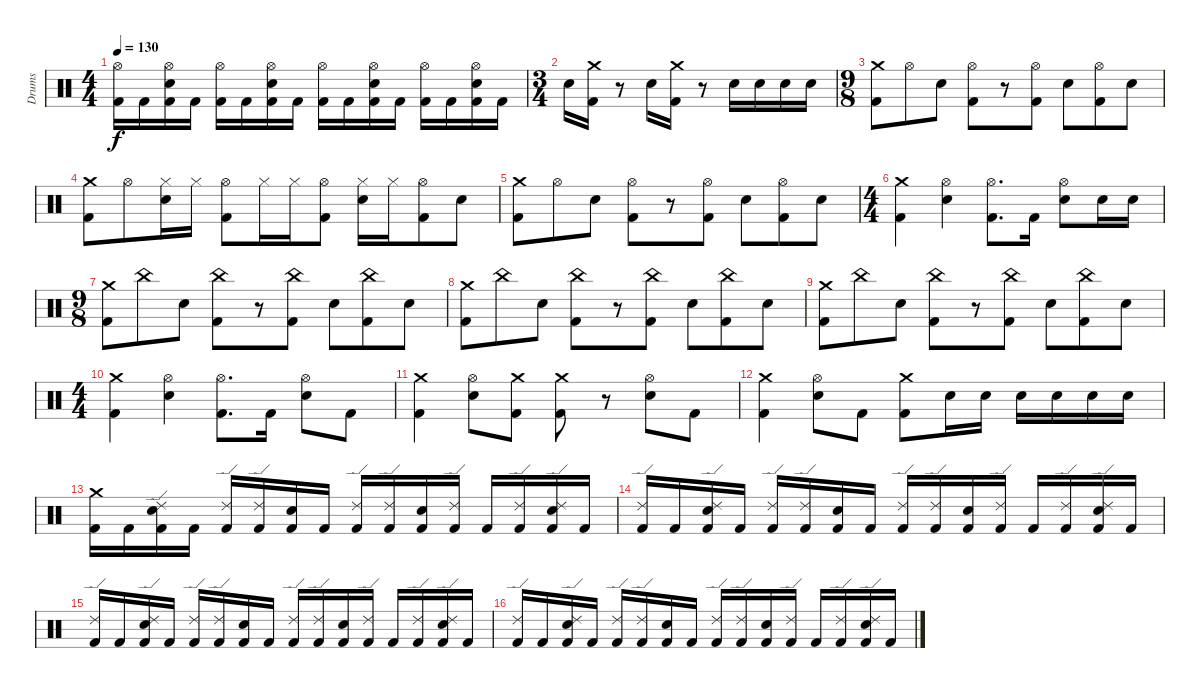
\track ("Drums" "Drums") {instrument percussion}
\staff {score}
\articulation defaults
\ts (4 4)
\tempo 130
\clef neutral
\ks c
("Hi-Hat (open)" "Kick (hit) 2").16{dy f} "Kick (hit) 2".16 ("Hi-Hat (open)" "Kick (hit) 2" "Electric Snare (hit)").16 "Kick (hit) 2".16 ("Kick (hit) 2" "Hi-Hat (open)").16 "Kick (hit) 2".16 ("Kick (hit) 2" "Electric Snare (hit)" "Hi-Hat (open)").16 "Kick (hit) 2".16 ("Kick (hit) 2" "Hi-Hat (open)").16 "Kick (hit) 2".16 ("Kick (hit) 2" "Electric Snare (hit)" "Hi-Hat (open)").16 "Kick (hit) 2".16 ("Kick (hit) 2" "Hi-Hat (open)").16 "Kick (hit) 2".16 ("Kick (hit) 2" "Electric Snare (hit)" "Hi-Hat (open)").16 "Kick (hit) 2".16 |
\ts (3 4)
"Electric Snare (hit)".16 ("Crash medium (hit)" "Kick (hit) 2").16 r.8 "Electric Snare (hit)".16 ("Crash medium (hit)" "Kick (hit) 2").16 r.8 "Electric Snare (hit)".16 "Electric Snare (hit)".16 "Electric Snare (hit)".16 "Electric Snare (hit)".16 |
\ts (9 8)
("Kick (hit) 2" "Crash medium (hit)").8 "Hi-Hat (open)".8 "Electric Snare (hit)".8 ("Hi-Hat (open)" "Kick (hit) 2").8 r.8 ("Hi-Hat (open)" "Kick (hit) 2").8 "Electric Snare (hit)".8 ("Hi-Hat (open)" "Kick (hit) 2").8 "Electric Snare (hit)".8 |
("Kick (hit) 2" "Crash medium (hit)").8 "Hi-Hat (open)".8 ("Hi-Hat (closed)" "Electric Snare (hit)").16 "Hi-Hat (closed)".16 ("Hi-Hat (open)" "Kick (hit) 2").8 "Hi-Hat (closed)".16 "Hi-Hat (closed)".16 ("Hi-Hat (open)" "Kick (hit) 2").8 ("Hi-Hat (closed)" "Electric Snare (hit)").16 "Hi-Hat (closed)".16 ("Hi-Hat (open)" "Kick (hit) 2").8 "Electric Snare (hit)".8 |
("Kick (hit) 2" "Crash medium (hit)").8 "Hi-Hat (open)".8 "Electric Snare (hit)".8 ("Hi-Hat (open)" "Kick (hit) 2").8 r.8 ("Hi-Hat (open)" "Kick (hit) 2").8 "Electric Snare (hit)".8 ("Hi-Hat (open)" "Kick (hit) 2").8 "Electric Snare (hit)".8 |
\ts (4 4)
("Kick (hit) 2" "Crash medium (hit)").4 ("Electric Snare (hit)" "Hi-Hat (open)").4 ("Kick (hit) 2" "Hi-Hat (open)").8{d} "Kick (hit) 2".16 ("Hi-Hat (open)" "Electric Snare (hit)").8 "Electric Snare (hit)".16 "Electric Snare (hit)".16 |
\ts (9 8)
("Kick (hit) 2" "Crash medium (hit)").8 "China (hit)".8 "Electric Snare (hit)".8 ("China (hit)" "Kick (hit) 2").8 r.8 ("China (hit)" "Kick (hit) 2").8 "Electric Snare (hit)".8 ("China (hit)" "Kick (hit) 2").8 "Electric Snare (hit)".8 |
("Kick (hit) 2" "Crash medium (hit)").8 "China (hit)".8 "Electric Snare (hit)".8 ("China (hit)" "Kick (hit) 2").8 r.8 ("China (hit)" "Kick (hit) 2").8 "Electric Snare (hit)".8 ("China (hit)" "Kick (hit) 2").8 "Electric Snare (hit)".8 |
("Kick (hit) 2" "Crash medium (hit)").8 "China (hit)".8 "Electric Snare (hit)".8 ("China (hit)" "Kick (hit) 2").8 r.8 ("China (hit)" "Kick (hit) 2").8 "Electric Snare (hit)".8 ("China (hit)" "Kick (hit) 2").8 "Electric Snare (hit)".8 |
\ts (4 4)
("Kick (hit) 2" "Crash medium (hit)").4 ("Electric Snare (hit)" "Hi-Hat (open)").4 ("Kick (hit) 2" "Hi-Hat (open)").8{d} "Kick (hit) 2".16 ("Hi-Hat (open)" "Electric Snare (hit)").8 "Kick (hit) 2".8 |
("Crash medium (hit)" "Kick (hit) 2").4 ("Hi-Hat (open)" "Electric Snare (hit)").8 ("Crash medium (hit)" "Kick (hit) 2").8 ("Crash medium (hit)" "Kick (hit) 2").8 r.8 ("Hi-Hat (open)" "Electric Snare (hit)").8 "Kick (hit) 2".8 |
("Crash medium (hit)" "Kick (hit) 2").4 ("Hi-Hat (open)" "Electric Snare (hit)").8 "Kick (hit) 2".8 ("Crash medium (hit)" "Kick (hit) 2").8 "Electric Snare (hit)".16 "Electric Snare (hit)".16 "Electric Snare (hit)".16 "Electric Snare (hit)".16 "Electric Snare (hit)".16 "Electric Snare (hit)".16 |
("Crash medium (hit)" "Kick (hit) 2").16 "Kick (hit) 2".16 ("Electric Snare (hit)" "Ride (edge) 2" "Kick (hit) 2").16 "Kick (hit) 2".16 ("Ride (edge) 2" "Kick (hit) 2").16 ("Ride (edge) 2" "Kick (hit) 2").16 ("Electric Snare (hit)" "Kick (hit) 2").16 "Kick (hit) 2".16 ("Ride (edge) 2" "Kick (hit) 2").16 ("Ride (edge) 2" "Kick (hit) 2").16 ("Electric Snare (hit)" "Kick (hit) 2").16 ("Ride (edge) 2" "Kick (hit) 2").16 "Kick (hit) 2".16 ("Ride (edge) 2" "Kick (hit) 2").16 ("Electric Snare (hit)" "Ride (edge) 2" "Kick (hit) 2").16 "Kick (hit) 2".16 |
("Ride (edge) 2" "Kick (hit) 2").16 "Kick (hit) 2".16 ("Electric Snare (hit)" "Ride (edge) 2" "Kick (hit) 2").16 "Kick (hit) 2".16 ("Ride (edge) 2" "Kick (hit) 2").16 ("Ride (edge) 2" "Kick (hit) 2").16 ("Electric Snare (hit)" "Kick (hit) 2").16 "Kick (hit) 2".16 ("Ride (edge) 2" "Kick (hit) 2").16 ("Ride (edge) 2" "Kick (hit) 2").16 ("Electric Snare (hit)" "Kick (hit) 2").16 ("Ride (edge) 2" "Kick (hit) 2").16 "Kick (hit) 2".16 ("Ride (edge) 2" "Kick (hit) 2").16 ("Electric Snare (hit)" "Ride (edge) 2" "Kick (hit) 2").16 "Kick (hit) 2".16 |
("Ride (edge) 2" "Kick (hit) 2").16 "Kick (hit) 2".16 ("Electric Snare (hit)" "Ride (edge) 2" "Kick (hit) 2").16 "Kick (hit) 2".16 ("Ride (edge) 2" "Kick (hit) 2").16 ("Ride (edge) 2" "Kick (hit) 2").16 ("Electric Snare (hit)" "Kick (hit) 2").16 "Kick (hit) 2".16 ("Ride (edge) 2" "Kick (hit) 2").16 ("Ride (edge) 2" "Kick (hit) 2").16 ("Electric Snare (hit)" "Kick (hit) 2").16 ("Ride (edge) 2" "Kick (hit) 2").16 "Kick (hit) 2".16 ("Ride (edge) 2" "Kick (hit) 2").16 ("Electric Snare (hit)" "Ride (edge) 2" "Kick (hit) 2").16 "Kick (hit) 2".16 |
("Ride (edge) 2" "Kick (hit) 2").16 "Kick (hit) 2".16 ("Electric Snare (hit)" "Ride (edge) 2" "Kick (hit) 2").16 "Kick (hit) 2".16 ("Ride (edge) 2" "Kick (hit) 2").16 ("Ride (edge) 2" "Kick (hit) 2").16 ("Electric Snare (hit)" "Kick (hit) 2").16 "Kick (hit) 2".16 ("Ride (edge) 2" "Kick (hit) 2").16 ("Ride (edge) 2" "Kick (hit) 2").16 ("Electric Snare (hit)" "Kick (hit) 2").16 ("Ride (edge) 2" "Kick (hit) 2").16 "Kick (hit) 2".16 ("Ride (edge) 2" "Kick (hit) 2").16 ("Electric Snare (hit)" "Ride (edge) 2" "Kick (hit) 2").16 "Kick (hit) 2".16
